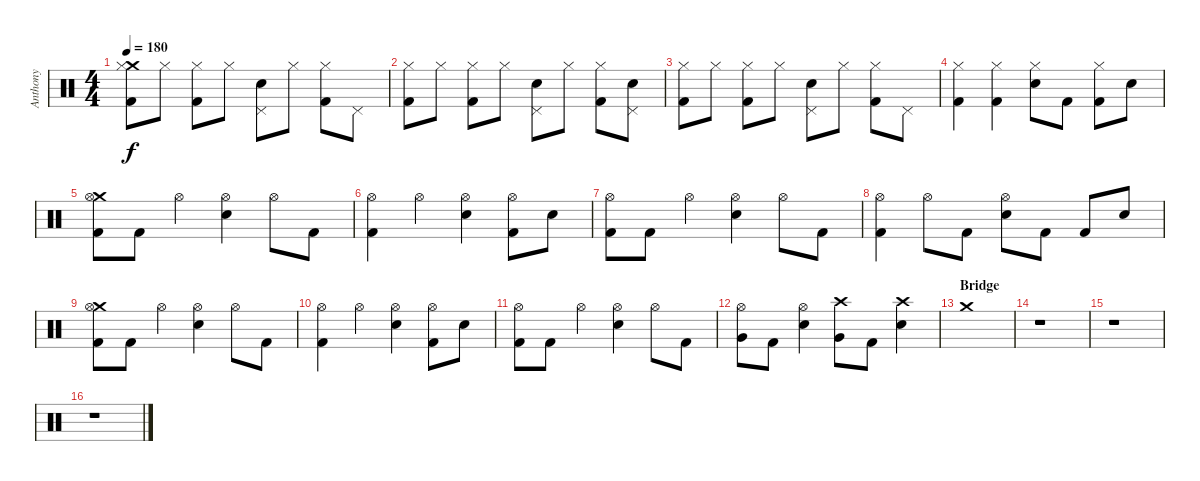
\track ("Anthony" "Anthony") {instrument percussion}
\staff {score}
\articulation defaults
\ts (4 4)
\tempo 180
\clef neutral
\ks c
("Crash medium (hit)" "Hi-Hat (closed)" "Kick (hit) 2").8{dy f} "Hi-Hat (closed)".8 ("Hi-Hat (closed)" "Kick (hit) 2").8 "Hi-Hat (closed)".8 ("Pedal Hi-Hat (hit)" "Electric Snare (hit)").8 "Hi-Hat (closed)".8 ("Hi-Hat (closed)" "Kick (hit) 2").8 "Pedal Hi-Hat (hit)".8 |
("Hi-Hat (closed)" "Kick (hit) 2").8 "Hi-Hat (closed)".8 ("Hi-Hat (closed)" "Kick (hit) 2").8 "Hi-Hat (closed)".8 ("Pedal Hi-Hat (hit)" "Electric Snare (hit)").8 "Hi-Hat (closed)".8 ("Hi-Hat (closed)" "Kick (hit) 2").8 ("Pedal Hi-Hat (hit)" "Electric Snare (hit)").8 |
("Hi-Hat (closed)" "Kick (hit) 2").8 "Hi-Hat (closed)".8 ("Hi-Hat (closed)" "Kick (hit) 2").8 "Hi-Hat (closed)".8 ("Pedal Hi-Hat (hit)" "Electric Snare (hit)").8 "Hi-Hat (closed)".8 ("Hi-Hat (closed)" "Kick (hit) 2").8 "Pedal Hi-Hat (hit)".8 |
("Hi-Hat (closed)" "Kick (hit) 2").4 ("Hi-Hat (closed)" "Kick (hit) 2").4 ("Hi-Hat (closed)" "Electric Snare (hit)").8 "Kick (hit) 2".8 ("Hi-Hat (closed)" "Kick (hit) 2").8 "Electric Snare (hit)".8 |
("Crash medium (hit)" "Hi-Hat (open)" "Kick (hit) 2").8 "Kick (hit) 2".8 "Hi-Hat (open)".4 ("Hi-Hat (open)" "Electric Snare (hit)").4 "Hi-Hat (open)".8 "Kick (hit) 2".8 |
("Hi-Hat (open)" "Kick (hit) 2").4 "Hi-Hat (open)".4 ("Hi-Hat (open)" "Electric Snare (hit)").4 ("Hi-Hat (open)" "Kick (hit) 2").8 "Electric Snare (hit)".8 |
("Hi-Hat (open)" "Kick (hit) 2").8 "Kick (hit) 2".8 "Hi-Hat (open)".4 ("Hi-Hat (open)" "Electric Snare (hit)").4 "Hi-Hat (open)".8 "Kick (hit) 2".8 |
("Hi-Hat (open)" "Kick (hit) 2").4 "Hi-Hat (open)".8 "Kick (hit) 2".8 ("Hi-Hat (open)" "Electric Snare (hit)").8 "Kick (hit) 2".8 "Kick (hit) 2".8 "Electric Snare (hit)".8 |
("Crash medium (hit)" "Hi-Hat (open)" "Kick (hit) 2").8 "Kick (hit) 2".8 "Hi-Hat (open)".4 ("Hi-Hat (open)" "Electric Snare (hit)").4 "Hi-Hat (open)".8 "Kick (hit) 2".8 |
("Hi-Hat (open)" "Kick (hit) 2").4 "Hi-Hat (open)".4 ("Hi-Hat (open)" "Electric Snare (hit)").4 ("Hi-Hat (open)" "Kick (hit) 2").8 "Electric Snare (hit)".8 |
("Hi-Hat (open)" "Kick (hit) 2").8 "Kick (hit) 2".8 "Hi-Hat (open)".4 ("Hi-Hat (open)" "Electric Snare (hit)").4 "Hi-Hat (open)".8 "Kick (hit) 2".8 |
("Hi-Hat (open)" "Very Low Tom (hit)").8 "Kick (hit) 2".8 ("Hi-Hat (open)" "Electric Snare (hit)").4 ("Crash high (hit)" "Very Low Tom (hit)").8 "Kick (hit) 2".8 ("Crash high (hit)" "Electric Snare (hit)").4 |
\section ("" "Bridge")
"Crash medium (hit)".1 |
r.1 |
r.1 |
r.1
